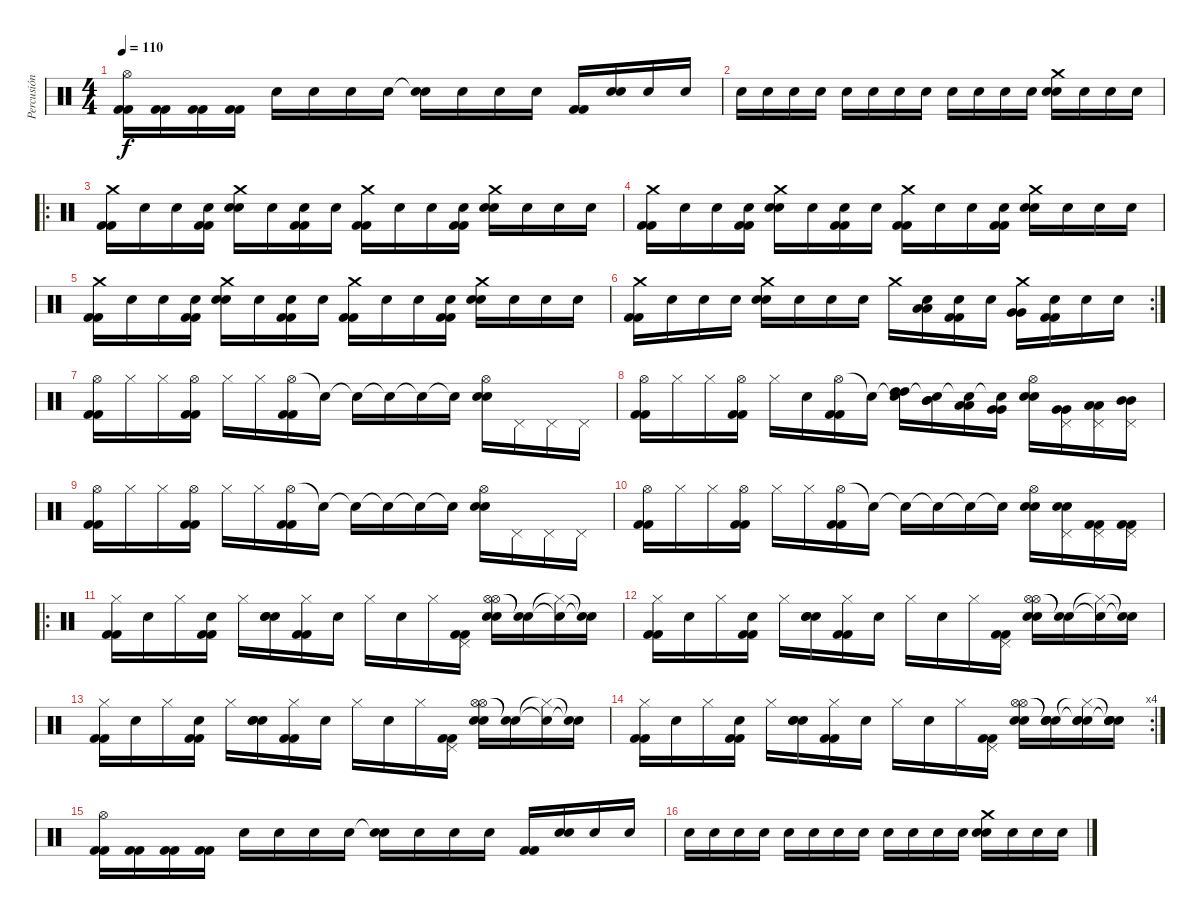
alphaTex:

\track ("Percusión" "Percusión") {instrument percussion}
\staff {score}
\articulation defaults
\ts (4 4)
\tempo 110
\clef neutral
\ks c
("Hi-Hat (open)" "Kick (hit) 2" "Kick (hit) 2").16{dy f} ("Kick (hit) 2" "Kick (hit) 2").16 ("Kick (hit) 2" "Kick (hit) 2").16 ("Kick (hit) 2" "Kick (hit) 2").16 "Snare (hit)".16 "Snare (hit)".16 "Snare (hit)".16 "Snare (hit)".16 ("Snare (hit)"{t} "Snare (hit)").16 "Snare (hit)".16 "Snare (hit)".16 "Snare (hit)".16 ("Kick (hit) 2" "Kick (hit) 2").16 ("Electric Snare (hit)" "Electric Snare (hit)").16 "Snare (hit)".16 "Snare (hit)".16 |
"Snare (hit)".16 "Snare (hit)".16 "Snare (hit)".16 "Snare (hit)".16 "Snare (hit)".16 "Snare (hit)".16 "Snare (hit)".16 "Snare (hit)".16 "Snare (hit)".16 "Snare (hit)".16 "Snare (hit)".16 "Snare (hit)".16 ("Crash medium (hit)" "Electric Snare (hit)" "Electric Snare (hit)").16 "Snare (hit)".16 "Snare (hit)".16 "Snare (hit)".16 |
\ro
("Crash medium (hit)" "Kick (hit) 2" "Kick (hit) 2").16 "Snare (hit)".16 "Snare (hit)".16 ("Snare (hit)" "Kick (hit) 2" "Kick (hit) 2").16 ("Crash medium (hit)" "Electric Snare (hit)" "Electric Snare (hit)").16 "Snare (hit)".16 ("Snare (hit)" "Kick (hit) 2" "Kick (hit) 2").16 "Snare (hit)".16 ("Crash medium (hit)" "Kick (hit) 2" "Kick (hit) 2").16 "Snare (hit)".16 "Snare (hit)".16 ("Snare (hit)" "Kick (hit) 2" "Kick (hit) 2").16 ("Crash medium (hit)" "Electric Snare (hit)" "Electric Snare (hit)").16 "Snare (hit)".16 "Snare (hit)".16 "Snare (hit)".16 |
("Crash medium (hit)" "Kick (hit) 2" "Kick (hit) 2").16 "Snare (hit)".16 "Snare (hit)".16 ("Snare (hit)" "Kick (hit) 2" "Kick (hit) 2").16 ("Crash medium (hit)" "Electric Snare (hit)" "Electric Snare (hit)").16 "Snare (hit)".16 ("Snare (hit)" "Kick (hit) 2" "Kick (hit) 2").16 "Snare (hit)".16 ("Crash medium (hit)" "Kick (hit) 2" "Kick (hit) 2").16 "Snare (hit)".16 "Snare (hit)".16 ("Snare (hit)" "Kick (hit) 2" "Kick (hit) 2").16 ("Crash medium (hit)" "Electric Snare (hit)" "Electric Snare (hit)").16 "Snare (hit)".16 "Snare (hit)".16 "Snare (hit)".16 |
("Crash medium (hit)" "Kick (hit) 2" "Kick (hit) 2").16 "Snare (hit)".16 "Snare (hit)".16 ("Snare (hit)" "Kick (hit) 2" "Kick (hit) 2").16 ("Crash medium (hit)" "Electric Snare (hit)" "Electric Snare (hit)").16 "Snare (hit)".16 ("Snare (hit)" "Kick (hit) 2" "Kick (hit) 2").16 "Snare (hit)".16 ("Crash medium (hit)" "Kick (hit) 2" "Kick (hit) 2").16 "Snare (hit)".16 "Snare (hit)".16 ("Snare (hit)" "Kick (hit) 2" "Kick (hit) 2").16 ("Crash medium (hit)" "Electric Snare (hit)" "Electric Snare (hit)").16 "Snare (hit)".16 "Snare (hit)".16 "Snare (hit)".16 |
\rc 2
("Crash medium (hit)" "Kick (hit) 2" "Kick (hit) 2").16 "Snare (hit)".16 "Snare (hit)".16 "Snare (hit)".16 ("Crash medium (hit)" "Electric Snare (hit)" "Electric Snare (hit)").16 "Snare (hit)".16 "Snare (hit)".16 "Snare (hit)".16 "Crash medium (hit)".16 ("Snare (hit)" "Low Tom (hit)" "Low Tom (hit)").16 ("Snare (hit)" "Kick (hit) 2" "Kick (hit) 2").16 "Snare (hit)".16 ("Crash medium (hit)" "Very Low Tom (hit)" "Very Low Tom (hit)").16 ("Snare (hit)" "Kick (hit) 2" "Kick (hit) 2").16 "Snare (hit)".16 "Snare (hit)".16 |
("Hi-Hat (open)" "Kick (hit) 2" "Kick (hit) 2").16 "Hi-Hat (closed)".16 "Hi-Hat (closed)".16 ("Hi-Hat (open)" "Kick (hit) 2" "Kick (hit) 2").16 "Hi-Hat (closed)".16 "Hi-Hat (closed)".16 ("Hi-Hat (open)" "Kick (hit) 2" "Kick (hit) 2").16 "Snare (hit)"{t}.16 "Snare (hit)"{t}.16 "Snare (hit)"{t}.16 "Snare (hit)"{t}.16 "Snare (hit)"{t}.16 ("Hi-Hat (open)" "Electric Snare (hit)" "Electric Snare (hit)").16 "Pedal Hi-Hat (hit)".16 "Pedal Hi-Hat (hit)".16 "Pedal Hi-Hat (hit)".16 |
("Hi-Hat (open)" "Kick (hit) 2" "Kick (hit) 2").16 "Hi-Hat (closed)".16 "Hi-Hat (closed)".16 ("Hi-Hat (open)" "Kick (hit) 2" "Kick (hit) 2").16 "Hi-Hat (closed)".16 "Snare (hit)".16 ("Hi-Hat (open)" "Kick (hit) 2" "Kick (hit) 2").16 "Snare (hit)"{t}.16 ("Snare (hit)"{t} "High Tom (hit)" "High Tom (hit)").16 ("Snare (hit)"{t} "Mid Tom (hit)" "Mid Tom (hit)").16 ("Snare (hit)"{t} "Low Tom (hit)" "Low Tom (hit)").16 ("Snare (hit)"{t} "Very Low Tom (hit)" "Very Low Tom (hit)").16 ("Hi-Hat (open)" "Electric Snare (hit)" "Electric Snare (hit)").16 ("Pedal Hi-Hat (hit)" "Very Low Tom (hit)" "Very Low Tom (hit)").16 ("Pedal Hi-Hat (hit)" "Low Tom (hit)" "Low Tom (hit)").16 ("Pedal Hi-Hat (hit)" "Mid Tom (hit)" "Mid Tom (hit)").16 |
("Hi-Hat (open)" "Kick (hit) 2" "Kick (hit) 2").16 "Hi-Hat (closed)".16 "Hi-Hat (closed)".16 ("Hi-Hat (open)" "Kick (hit) 2" "Kick (hit) 2").16 "Hi-Hat (closed)".16 "Hi-Hat (closed)".16 ("Hi-Hat (open)" "Kick (hit) 2" "Kick (hit) 2").16 "Snare (hit)"{t}.16 "Snare (hit)"{t}.16 "Snare (hit)"{t}.16 "Snare (hit)"{t}.16 "Snare (hit)"{t}.16 ("Hi-Hat (open)" "Electric Snare (hit)" "Electric Snare (hit)").16 "Pedal Hi-Hat (hit)".16 "Pedal Hi-Hat (hit)".16 "Pedal Hi-Hat (hit)".16 |
("Hi-Hat (open)" "Kick (hit) 2" "Kick (hit) 2").16 "Hi-Hat (closed)".16 "Hi-Hat (closed)".16 ("Hi-Hat (open)" "Kick (hit) 2" "Kick (hit) 2").16 "Hi-Hat (closed)".16 "Hi-Hat (closed)".16 ("Hi-Hat (open)" "Kick (hit) 2" "Kick (hit) 2").16 "Snare (hit)"{t}.16 "Snare (hit)"{t}.16 "Snare (hit)"{t}.16 "Snare (hit)"{t}.16 "Snare (hit)"{t}.16 ("Hi-Hat (open)" "Electric Snare (hit)" "Electric Snare (hit)").16 ("Pedal Hi-Hat (hit)" "Electric Snare (hit)" "Electric Snare (hit)").16 ("Pedal Hi-Hat (hit)" "Kick (hit) 2" "Kick (hit) 2").16 ("Pedal Hi-Hat (hit)" "Kick (hit) 2" "Kick (hit) 2").16 |
\ro
("Hi-Hat (closed)" "Kick (hit) 2" "Kick (hit) 2").16 "Snare (hit)".16 "Hi-Hat (closed)".16 ("Snare (hit)" "Kick (hit) 2" "Kick (hit) 2").16 "Hi-Hat (closed)".16 ("Snare (hit)" "Electric Snare (hit)" "Electric Snare (hit)").16 ("Hi-Hat (closed)" "Kick (hit) 2" "Kick (hit) 2").16 "Snare (hit)".16 "Hi-Hat (closed)".16 "Snare (hit)".16 "Hi-Hat (closed)".16 ("Pedal Hi-Hat (hit)" "Kick (hit) 2" "Kick (hit) 2").16 ("Hi-Hat (open)" "Hi-Hat (open)" "Electric Snare (hit)" "Electric Snare (hit)").16 ("Snare (hit)"{t} "Snare (hit)"{t}).16 ("Hi-Hat (closed)"{t} "Snare (hit)"{t}).16 ("Snare (hit)"{t} "Snare (hit)"{t}).16 |
("Hi-Hat (closed)" "Kick (hit) 2" "Kick (hit) 2").16 "Snare (hit)".16 "Hi-Hat (closed)".16 ("Snare (hit)" "Kick (hit) 2" "Kick (hit) 2").16 "Hi-Hat (closed)".16 ("Snare (hit)" "Electric Snare (hit)" "Electric Snare (hit)").16 ("Hi-Hat (closed)" "Kick (hit) 2" "Kick (hit) 2").16 "Snare (hit)".16 "Hi-Hat (closed)".16 "Snare (hit)".16 "Hi-Hat (closed)".16 ("Pedal Hi-Hat (hit)" "Kick (hit) 2" "Kick (hit) 2").16 ("Hi-Hat (open)" "Hi-Hat (open)" "Electric Snare (hit)" "Electric Snare (hit)").16 ("Snare (hit)"{t} "Snare (hit)"{t}).16 ("Hi-Hat (closed)"{t} "Snare (hit)"{t}).16 ("Snare (hit)"{t} "Snare (hit)"{t}).16 |
("Hi-Hat (closed)" "Kick (hit) 2" "Kick (hit) 2").16 "Snare (hit)".16 "Hi-Hat (closed)".16 ("Snare (hit)" "Kick (hit) 2" "Kick (hit) 2").16 "Hi-Hat (closed)".16 ("Snare (hit)" "Electric Snare (hit)" "Electric Snare (hit)").16 ("Hi-Hat (closed)" "Kick (hit) 2" "Kick (hit) 2").16 "Snare (hit)".16 "Hi-Hat (closed)".16 "Snare (hit)".16 "Hi-Hat (closed)".16 ("Pedal Hi-Hat (hit)" "Kick (hit) 2" "Kick (hit) 2").16 ("Hi-Hat (open)" "Hi-Hat (open)" "Electric Snare (hit)" "Electric Snare (hit)").16 ("Snare (hit)"{t} "Snare (hit)"{t}).16 ("Hi-Hat (closed)"{t} "Snare (hit)"{t}).16 ("Snare (hit)"{t} "Snare (hit)"{t}).16 |
\rc 4
("Hi-Hat (closed)" "Kick (hit) 2" "Kick (hit) 2").16 "Snare (hit)".16 "Hi-Hat (closed)".16 ("Snare (hit)" "Kick (hit) 2" "Kick (hit) 2").16 "Hi-Hat (closed)".16 ("Snare (hit)" "Electric Snare (hit)" "Electric Snare (hit)").16 ("Hi-Hat (closed)" "Kick (hit) 2" "Kick (hit) 2").16 "Snare (hit)".16 "Hi-Hat (closed)".16 "Snare (hit)".16 "Hi-Hat (closed)".16 ("Pedal Hi-Hat (hit)" "Kick (hit) 2" "Kick (hit) 2").16 ("Hi-Hat (open)" "Hi-Hat (open)" "Electric Snare (hit)" "Electric Snare (hit)").16 ("Snare (hit)"{t} "Snare (hit)"{t} "Electric Snare (hit)" "Electric Snare (hit)").16 ("Hi-Hat (closed)"{t} "Snare (hit)"{t} "Electric Snare (hit)" "Electric Snare (hit)").16 ("Snare (hit)"{t} "Snare (hit)"{t} "Electric Snare (hit)" "Electric Snare (hit)").16 |
("Hi-Hat (open)" "Kick (hit) 2" "Kick (hit) 2").16 ("Kick (hit) 2" "Kick (hit) 2").16 ("Kick (hit) 2" "Kick (hit) 2").16 ("Kick (hit) 2" "Kick (hit) 2").16 "Snare (hit)".16 "Snare (hit)".16 "Snare (hit)".16 "Snare (hit)".16 ("Snare (hit)"{t} "Snare (hit)").16 "Snare (hit)".16 "Snare (hit)".16 "Snare (hit)".16 ("Kick (hit) 2" "Kick (hit) 2").16 ("Electric Snare (hit)" "Electric Snare (hit)").16 "Snare (hit)".16 "Snare (hit)".16 |
"Snare (hit)".16 "Snare (hit)".16 "Snare (hit)".16 "Snare (hit)".16 "Snare (hit)".16 "Snare (hit)".16 "Snare (hit)".16 "Snare (hit)".16 "Snare (hit)".16 "Snare (hit)".16 "Snare (hit)".16 "Snare (hit)".16 ("Crash medium (hit)" "Electric Snare (hit)" "Electric Snare (hit)").16 "Snare (hit)".16 "Snare (hit)".16 "Snare (hit)".16
